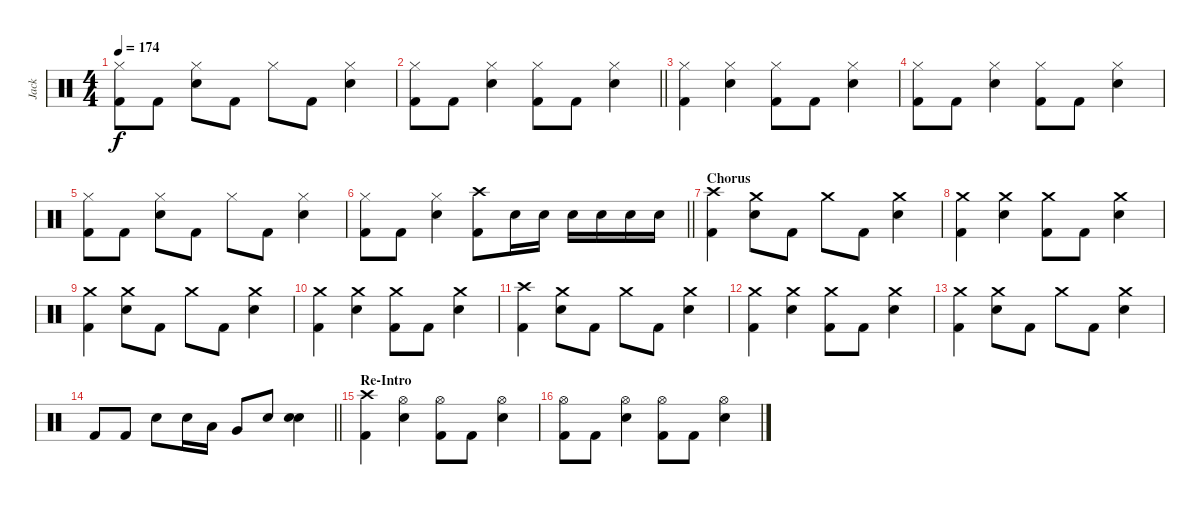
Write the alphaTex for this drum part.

\track ("Jack" "Jack") {instrument percussion}
\staff {score}
\articulation defaults
\ts (4 4)
\tempo 174
\clef neutral
\ks c
("Hi-Hat (closed)" "Kick (hit) 2").8{dy f} "Kick (hit) 2".8 ("Hi-Hat (closed)" "Electric Snare (hit)").8 "Kick (hit) 2".8 "Hi-Hat (closed)".8 "Kick (hit) 2".8 ("Hi-Hat (closed)" "Electric Snare (hit)").4 |
\barLineRight lightlight
("Hi-Hat (closed)" "Kick (hit) 2").8 "Kick (hit) 2".8 ("Hi-Hat (closed)" "Electric Snare (hit)").4 ("Hi-Hat (closed)" "Kick (hit) 2").8 "Kick (hit) 2".8 ("Hi-Hat (closed)" "Electric Snare (hit)").4 |
("Hi-Hat (closed)" "Kick (hit) 2").4 ("Hi-Hat (closed)" "Electric Snare (hit)").4 ("Hi-Hat (closed)" "Kick (hit) 2").8 "Kick (hit) 2".8 ("Hi-Hat (closed)" "Electric Snare (hit)").4 |
("Hi-Hat (closed)" "Kick (hit) 2").8 "Kick (hit) 2".8 ("Hi-Hat (closed)" "Electric Snare (hit)").4 ("Hi-Hat (closed)" "Kick (hit) 2").8 "Kick (hit) 2".8 ("Hi-Hat (closed)" "Electric Snare (hit)").4 |
("Hi-Hat (closed)" "Kick (hit) 2").8 "Kick (hit) 2".8 ("Hi-Hat (closed)" "Electric Snare (hit)").8 "Kick (hit) 2".8 "Hi-Hat (closed)".8 "Kick (hit) 2".8 ("Hi-Hat (closed)" "Electric Snare (hit)").4 |
\barLineRight lightlight
("Hi-Hat (closed)" "Kick (hit) 2").8 "Kick (hit) 2".8 ("Hi-Hat (closed)" "Electric Snare (hit)").4 ("Crash high (hit)" "Kick (hit) 2").8 "Electric Snare (hit)".16 "Electric Snare (hit)".16 "Electric Snare (hit)".16 "Electric Snare (hit)".16 "Electric Snare (hit)".16 "Electric Snare (hit)".16 |
\section ("" "Chorus")
("Crash high (hit)" "Kick (hit) 2").4 ("Crash medium (hit)" "Electric Snare (hit)").8 "Kick (hit) 2".8 "Crash medium (hit)".8 "Kick (hit) 2".8 ("Crash medium (hit)" "Electric Snare (hit)").4 |
("Crash medium (hit)" "Kick (hit) 2").4 ("Crash medium (hit)" "Electric Snare (hit)").4 ("Crash medium (hit)" "Kick (hit) 2").8 "Kick (hit) 2".8 ("Crash medium (hit)" "Electric Snare (hit)").4 |
("Crash medium (hit)" "Kick (hit) 2").4 ("Crash medium (hit)" "Electric Snare (hit)").8 "Kick (hit) 2".8 "Crash medium (hit)".8 "Kick (hit) 2".8 ("Crash medium (hit)" "Electric Snare (hit)").4 |
("Crash medium (hit)" "Kick (hit) 2").4 ("Crash medium (hit)" "Electric Snare (hit)").4 ("Crash medium (hit)" "Kick (hit) 2").8 "Kick (hit) 2".8 ("Crash medium (hit)" "Electric Snare (hit)").4 |
("Crash high (hit)" "Kick (hit) 2").4 ("Crash medium (hit)" "Electric Snare (hit)").8 "Kick (hit) 2".8 "Crash medium (hit)".8 "Kick (hit) 2".8 ("Crash medium (hit)" "Electric Snare (hit)").4 |
("Crash medium (hit)" "Kick (hit) 2").4 ("Crash medium (hit)" "Electric Snare (hit)").4 ("Crash medium (hit)" "Kick (hit) 2").8 "Kick (hit) 2".8 ("Crash medium (hit)" "Electric Snare (hit)").4 |
("Crash medium (hit)" "Kick (hit) 2").4 ("Crash medium (hit)" "Electric Snare (hit)").8 "Kick (hit) 2".8 "Crash medium (hit)".8 "Kick (hit) 2".8 ("Crash medium (hit)" "Electric Snare (hit)").4 |
\barLineRight lightlight "Kick (hit) 2".8 "Kick (hit) 2".8 "Electric Snare (hit)".8 "Electric Snare (hit)".16 "Low Tom (hit)".16 "Very Low Tom (hit)".8 "Electric Snare (hit)".8
("Electric Snare (hit)" "Electric Snare (hit)").4 |
\section ("" "Re-Intro")
("Crash high (hit)" "Kick (hit) 2").4 ("Hi-Hat (open)" "Electric Snare (hit)").4 ("Hi-Hat (open)" "Kick (hit) 2").8 "Kick (hit) 2".8 ("Hi-Hat (open)" "Electric Snare (hit)").4 |
("Hi-Hat (open)" "Kick (hit) 2").8 "Kick (hit) 2".8 ("Hi-Hat (open)" "Electric Snare (hit)").4 ("Hi-Hat (open)" "Kick (hit) 2").8 "Kick (hit) 2".8 ("Hi-Hat (open)" "Electric Snare (hit)").4
